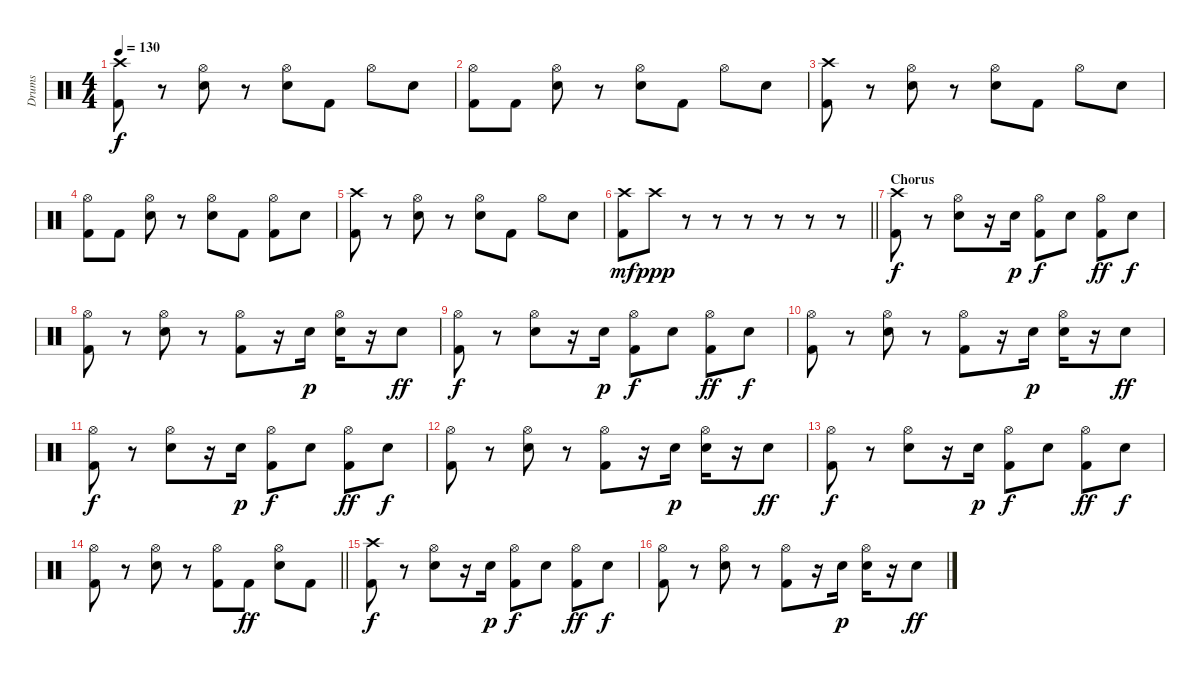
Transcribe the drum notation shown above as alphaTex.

\track ("Drums" "Drums") {instrument percussion}
\staff {score}
\articulation defaults
\ts (4 4)
\tempo 130
\clef neutral
\ks c
("Crash high (hit)" "Kick (hit) 2").8{dy f} r.8 ("Hi-Hat (open)" "Snare (hit) 2").8 r.8 ("Hi-Hat (open)" "Snare (hit) 2").8 "Kick (hit) 2".8 "Hi-Hat (open)".8 "Snare (hit) 2".8 |
("Hi-Hat (open)" "Kick (hit) 2").8 "Kick (hit) 2".8 ("Hi-Hat (open)" "Snare (hit) 2").8 r.8 ("Hi-Hat (open)" "Snare (hit) 2").8 "Kick (hit) 2".8 "Hi-Hat (open)".8 "Snare (hit) 2".8 |
("Crash high (hit)" "Kick (hit) 2").8 r.8 ("Hi-Hat (open)" "Snare (hit) 2").8 r.8 ("Hi-Hat (open)" "Snare (hit) 2").8 "Kick (hit) 2".8 "Hi-Hat (open)".8 "Snare (hit) 2".8 |
("Hi-Hat (open)" "Kick (hit) 2").8 "Kick (hit) 2".8 ("Hi-Hat (open)" "Snare (hit) 2").8 r.8 ("Hi-Hat (open)" "Snare (hit) 2").8 "Kick (hit) 2".8 ("Hi-Hat (open)" "Kick (hit) 2").8 "Snare (hit) 2".8 |
("Crash high (hit)" "Kick (hit) 2").8 r.8 ("Hi-Hat (open)" "Snare (hit) 2").8 r.8 ("Hi-Hat (open)" "Snare (hit) 2").8 "Kick (hit) 2".8 "Hi-Hat (open)".8 "Snare (hit) 2".8 |
\barLineRight lightlight
("Crash high (hit)" "Kick (hit) 2").8{dy mf} "Crash high (hit)".8{dy ppp} r.8 r.8 r.8 r.8 r.8 r.8 |
\section ("" "Chorus")
("Crash high (hit)" "Kick (hit) 2").8{dy f} r.8 ("Hi-Hat (open)" "Snare (hit) 2").8 r.16 "Snare (hit) 2".16{dy p} ("Hi-Hat (open)" "Kick (hit) 2").8{dy f} "Snare (hit) 2".8 ("Hi-Hat (open)" "Kick (hit) 2").8{dy ff} "Snare (hit) 2".8{dy f} |
("Hi-Hat (open)" "Kick (hit) 2").8 r.8 ("Hi-Hat (open)" "Snare (hit) 2").8 r.8 ("Hi-Hat (open)" "Kick (hit) 2").8 r.16 "Snare (hit) 2".16{dy p} ("Hi-Hat (open)" "Snare (hit) 2").16 r.16 "Snare (hit) 2".8{dy ff} |
("Hi-Hat (open)" "Kick (hit) 2").8{dy f} r.8 ("Hi-Hat (open)" "Snare (hit) 2").8 r.16 "Snare (hit) 2".16{dy p} ("Hi-Hat (open)" "Kick (hit) 2").8{dy f} "Snare (hit) 2".8 ("Hi-Hat (open)" "Kick (hit) 2").8{dy ff} "Snare (hit) 2".8{dy f} |
("Hi-Hat (open)" "Kick (hit) 2").8 r.8 ("Hi-Hat (open)" "Snare (hit) 2").8 r.8 ("Hi-Hat (open)" "Kick (hit) 2").8 r.16 "Snare (hit) 2".16{dy p} ("Hi-Hat (open)" "Snare (hit) 2").16 r.16 "Snare (hit) 2".8{dy ff} |
("Hi-Hat (open)" "Kick (hit) 2").8{dy f} r.8 ("Hi-Hat (open)" "Snare (hit) 2").8 r.16 "Snare (hit) 2".16{dy p} ("Hi-Hat (open)" "Kick (hit) 2").8{dy f} "Snare (hit) 2".8 ("Hi-Hat (open)" "Kick (hit) 2").8{dy ff} "Snare (hit) 2".8{dy f} |
("Hi-Hat (open)" "Kick (hit) 2").8 r.8 ("Hi-Hat (open)" "Snare (hit) 2").8 r.8 ("Hi-Hat (open)" "Kick (hit) 2").8 r.16 "Snare (hit) 2".16{dy p} ("Hi-Hat (open)" "Snare (hit) 2").16 r.16 "Snare (hit) 2".8{dy ff} |
("Hi-Hat (open)" "Kick (hit) 2").8{dy f} r.8 ("Hi-Hat (open)" "Snare (hit) 2").8 r.16 "Snare (hit) 2".16{dy p} ("Hi-Hat (open)" "Kick (hit) 2").8{dy f} "Snare (hit) 2".8 ("Hi-Hat (open)" "Kick (hit) 2").8{dy ff} "Snare (hit) 2".8{dy f} |
\barLineRight lightlight
("Hi-Hat (open)" "Kick (hit) 2").8 r.8 ("Hi-Hat (open)" "Snare (hit) 2").8 r.8 ("Hi-Hat (open)" "Kick (hit) 2").8 "Kick (hit) 2".8{dy ff} ("Hi-Hat (open)" "Snare (hit) 2").8 "Kick (hit) 2".8 |
("Crash high (hit)" "Kick (hit) 2").8{dy f} r.8 ("Hi-Hat (open)" "Snare (hit) 2").8 r.16 "Snare (hit) 2".16{dy p} ("Hi-Hat (open)" "Kick (hit) 2").8{dy f} "Snare (hit) 2".8 ("Hi-Hat (open)" "Kick (hit) 2").8{dy ff} "Snare (hit) 2".8{dy f} |
("Hi-Hat (open)" "Kick (hit) 2").8 r.8 ("Hi-Hat (open)" "Snare (hit) 2").8 r.8 ("Hi-Hat (open)" "Kick (hit) 2").8 r.16 "Snare (hit) 2".16{dy p} ("Hi-Hat (open)" "Snare (hit) 2").16 r.16 "Snare (hit) 2".8{dy ff}
